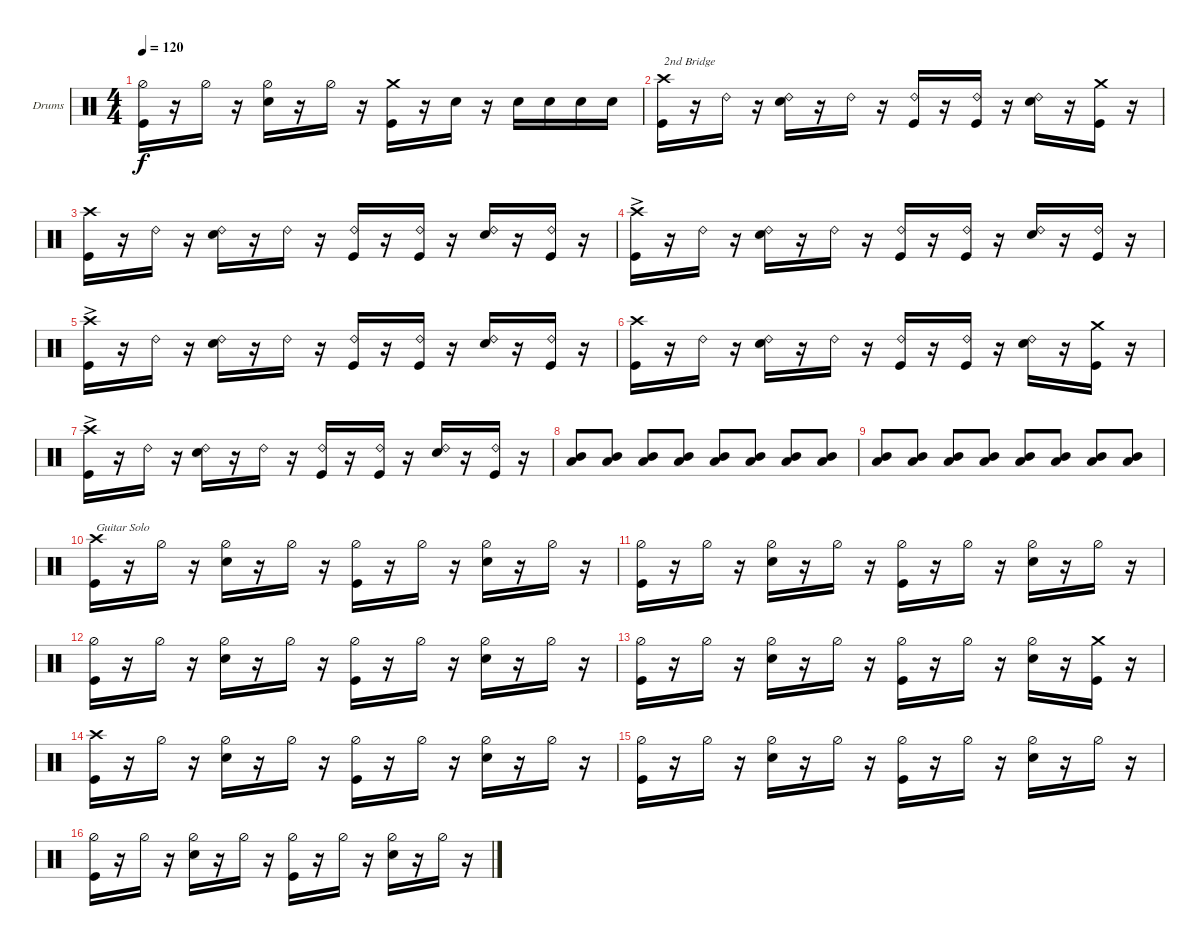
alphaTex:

\defaultSystemsLayout 4
\bracketExtendMode groupsimilarinstruments
\firstSystemTrackNameOrientation horizontal
\otherSystemsTrackNameOrientation horizontal
\track ("Drums  SK" "Drums") {instrument percussion}
\staff {score}
\articulation defaults
\ts (4 4)
\tempo 120
\clef neutral
\ks c
("Kick (hit)" "Hi-Hat (half)").16{dy f} r.16 "Hi-Hat (half)".16 r.16 ("Snare (hit) 2" "Hi-Hat (half)").16 r.16 "Hi-Hat (half)".16 r.16 ("Kick (hit)" "Crash medium (hit)").16 r.16 "Snare (hit) 2".16 r.16 "Snare (hit) 2".16 "Snare (hit) 2".16 "Snare (hit) 2".16 "Snare (hit) 2".16 |
("Kick (hit)" "Crash high (hit)").16{txt "2nd Bridge "} r.16 "Ride (bell) 2".16 r.16 ("Snare (hit) 2" "Ride (bell) 2").16 r.16 "Ride (bell) 2".16 r.16 ("Kick (hit)" "Ride (bell) 2").16 r.16 ("Kick (hit)" "Ride (bell) 2").16 r.16 ("Snare (hit) 2" "Ride (bell) 2").16 r.16 ("Kick (hit)" "Crash medium (hit)").16 r.16 |
("Kick (hit)" "Crash high (hit)").16 r.16 "Ride (bell) 2".16 r.16 ("Snare (hit) 2" "Ride (bell) 2").16 r.16 "Ride (bell) 2".16 r.16 ("Kick (hit)" "Ride (bell) 2").16 r.16 ("Kick (hit)" "Ride (bell) 2").16 r.16 ("Snare (hit) 2" "Ride (bell) 2").16 r.16 ("Kick (hit)" "Ride (bell) 2").16 r.16 |
("Kick (hit)"{ac} "Crash high (hit)"{ac}).16 r.16 "Ride (bell) 2".16 r.16 ("Snare (hit) 2" "Ride (bell) 2").16 r.16 "Ride (bell) 2".16 r.16 ("Kick (hit)" "Ride (bell) 2").16 r.16 ("Kick (hit)" "Ride (bell) 2").16 r.16 ("Snare (hit) 2" "Ride (bell) 2").16 r.16 ("Kick (hit)" "Ride (bell) 2").16 r.16 |
("Kick (hit)"{ac} "Crash high (hit)"{ac}).16 r.16 "Ride (bell) 2".16 r.16 ("Snare (hit) 2" "Ride (bell) 2").16 r.16 "Ride (bell) 2".16 r.16 ("Kick (hit)" "Ride (bell) 2").16 r.16 ("Kick (hit)" "Ride (bell) 2").16 r.16 ("Snare (hit) 2" "Ride (bell) 2").16 r.16 ("Kick (hit)" "Ride (bell) 2").16 r.16 |
("Kick (hit)" "Crash high (hit)").16 r.16 "Ride (bell) 2".16 r.16 ("Snare (hit) 2" "Ride (bell) 2").16 r.16 "Ride (bell) 2".16 r.16 ("Kick (hit)" "Ride (bell) 2").16 r.16 ("Kick (hit)" "Ride (bell) 2").16 r.16 ("Snare (hit) 2" "Ride (bell) 2").16 r.16 ("Kick (hit)" "Crash medium (hit)").16 r.16 |
("Kick (hit)"{ac} "Crash high (hit)"{ac}).16 r.16 "Ride (bell) 2".16 r.16 ("Snare (hit) 2" "Ride (bell) 2").16 r.16 "Ride (bell) 2".16 r.16 ("Kick (hit)" "Ride (bell) 2").16 r.16 ("Kick (hit)" "Ride (bell) 2").16 r.16 ("Snare (hit) 2" "Ride (bell) 2").16 r.16 ("Kick (hit)" "Ride (bell) 2").16 r.16 |
("Low Tom (hit)" "Mid Tom (hit)").8 ("Low Tom (hit)" "Mid Tom (hit)").8 ("Low Tom (hit)" "Mid Tom (hit)").8 ("Low Tom (hit)" "Mid Tom (hit)").8 ("Low Tom (hit)" "Mid Tom (hit)").8 ("Low Tom (hit)" "Mid Tom (hit)").8 ("Low Tom (hit)" "Mid Tom (hit)").8 ("Low Tom (hit)" "Mid Tom (hit)").8 |
("Low Tom (hit)" "Mid Tom (hit)").8 ("Low Tom (hit)" "Mid Tom (hit)").8 ("Low Tom (hit)" "Mid Tom (hit)").8 ("Low Tom (hit)" "Mid Tom (hit)").8 ("Low Tom (hit)" "Mid Tom (hit)").8 ("Low Tom (hit)" "Mid Tom (hit)").8 ("Low Tom (hit)" "Mid Tom (hit)").8 ("Low Tom (hit)" "Mid Tom (hit)").8 |
("Kick (hit)" "Crash high (hit)").16{txt "Guitar Solo"} r.16 "Hi-Hat (half)".16 r.16 ("Snare (hit) 2" "Hi-Hat (half)").16 r.16 "Hi-Hat (half)".16 r.16 ("Kick (hit)" "Hi-Hat (half)").16 r.16 "Hi-Hat (half)".16 r.16 ("Snare (hit) 2" "Hi-Hat (half)").16 r.16 "Hi-Hat (half)".16 r.16 |
("Kick (hit)" "Hi-Hat (half)").16 r.16 "Hi-Hat (half)".16 r.16 ("Snare (hit) 2" "Hi-Hat (half)").16 r.16 "Hi-Hat (half)".16 r.16 ("Kick (hit)" "Hi-Hat (half)").16 r.16 "Hi-Hat (half)".16 r.16 ("Snare (hit) 2" "Hi-Hat (half)").16 r.16 "Hi-Hat (half)".16 r.16 |
("Kick (hit)" "Hi-Hat (half)").16 r.16 "Hi-Hat (half)".16 r.16 ("Snare (hit) 2" "Hi-Hat (half)").16 r.16 "Hi-Hat (half)".16 r.16 ("Kick (hit)" "Hi-Hat (half)").16 r.16 "Hi-Hat (half)".16 r.16 ("Snare (hit) 2" "Hi-Hat (half)").16 r.16 "Hi-Hat (half)".16 r.16 |
("Kick (hit)" "Hi-Hat (half)").16 r.16 "Hi-Hat (half)".16 r.16 ("Snare (hit) 2" "Hi-Hat (half)").16 r.16 "Hi-Hat (half)".16 r.16 ("Kick (hit)" "Hi-Hat (half)").16 r.16 "Hi-Hat (half)".16 r.16 ("Snare (hit) 2" "Hi-Hat (half)").16 r.16 ("Kick (hit)" "Crash medium (hit)").16 r.16 |
("Kick (hit)" "Crash high (hit)").16 r.16 "Hi-Hat (half)".16 r.16 ("Snare (hit) 2" "Hi-Hat (half)").16 r.16 "Hi-Hat (half)".16 r.16 ("Kick (hit)" "Hi-Hat (half)").16 r.16 "Hi-Hat (half)".16 r.16 ("Snare (hit) 2" "Hi-Hat (half)").16 r.16 "Hi-Hat (half)".16 r.16 |
("Kick (hit)" "Hi-Hat (half)").16 r.16 "Hi-Hat (half)".16 r.16 ("Snare (hit) 2" "Hi-Hat (half)").16 r.16 "Hi-Hat (half)".16 r.16 ("Kick (hit)" "Hi-Hat (half)").16 r.16 "Hi-Hat (half)".16 r.16 ("Snare (hit) 2" "Hi-Hat (half)").16 r.16 "Hi-Hat (half)".16 r.16 |
("Kick (hit)" "Hi-Hat (half)").16 r.16 "Hi-Hat (half)".16 r.16 ("Snare (hit) 2" "Hi-Hat (half)").16 r.16 "Hi-Hat (half)".16 r.16 ("Kick (hit)" "Hi-Hat (half)").16 r.16 "Hi-Hat (half)".16 r.16 ("Snare (hit) 2" "Hi-Hat (half)").16 r.16 "Hi-Hat (half)".16 r.16
